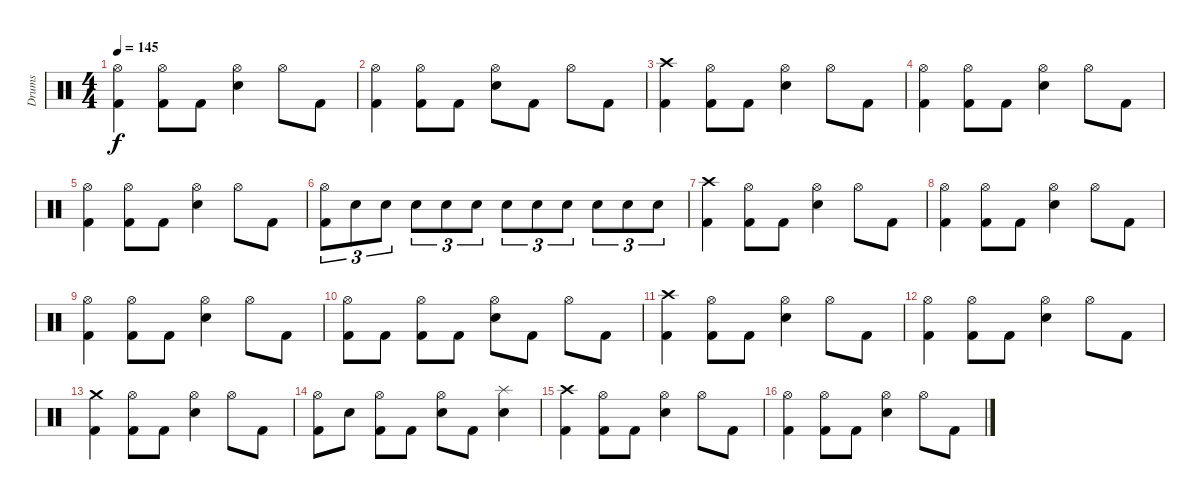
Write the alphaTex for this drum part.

\track ("Drums" "Drums") {instrument percussion}
\staff {score}
\articulation defaults
\ts (4 4)
\tempo 145
\clef neutral
\ks c
("Hi-Hat (open)" "Kick (hit) 2").4{dy f} ("Hi-Hat (open)" "Kick (hit) 2").8 "Kick (hit) 2".8 ("Hi-Hat (open)" "Electric Snare (hit)").4 "Hi-Hat (open)".8 "Kick (hit) 2".8 |
("Hi-Hat (open)" "Kick (hit) 2").4 ("Hi-Hat (open)" "Kick (hit) 2").8 "Kick (hit) 2".8 ("Hi-Hat (open)" "Electric Snare (hit)").8 "Kick (hit) 2".8 "Hi-Hat (open)".8 "Kick (hit) 2".8 |
("Crash high (hit)" "Kick (hit) 2").4 ("Hi-Hat (open)" "Kick (hit) 2").8 "Kick (hit) 2".8 ("Hi-Hat (open)" "Electric Snare (hit)").4 "Hi-Hat (open)".8 "Kick (hit) 2".8 |
("Hi-Hat (open)" "Kick (hit) 2").4 ("Hi-Hat (open)" "Kick (hit) 2").8 "Kick (hit) 2".8 ("Hi-Hat (open)" "Electric Snare (hit)").4 "Hi-Hat (open)".8 "Kick (hit) 2".8 |
("Hi-Hat (open)" "Kick (hit) 2").4 ("Hi-Hat (open)" "Kick (hit) 2").8 "Kick (hit) 2".8 ("Hi-Hat (open)" "Electric Snare (hit)").4 "Hi-Hat (open)".8 "Kick (hit) 2".8 |
("Hi-Hat (open)" "Kick (hit) 2").8{tu (3 2)} "Electric Snare (hit)".8{tu (3 2)} "Electric Snare (hit)".8{tu (3 2)} "Electric Snare (hit)".8{tu (3 2)} "Electric Snare (hit)".8{tu (3 2)} "Electric Snare (hit)".8{tu (3 2)} "Electric Snare (hit)".8{tu (3 2)} "Electric Snare (hit)".8{tu (3 2)} "Electric Snare (hit)".8{tu (3 2)} "Electric Snare (hit)".8{tu (3 2)} "Electric Snare (hit)".8{tu (3 2)} "Electric Snare (hit)".8{tu (3 2)} |
("Crash high (hit)" "Kick (hit) 2").4 ("Hi-Hat (open)" "Kick (hit) 2").8 "Kick (hit) 2".8 ("Hi-Hat (open)" "Electric Snare (hit)").4 "Hi-Hat (open)".8 "Kick (hit) 2".8 |
("Hi-Hat (open)" "Kick (hit) 2").4 ("Hi-Hat (open)" "Kick (hit) 2").8 "Kick (hit) 2".8 ("Hi-Hat (open)" "Electric Snare (hit)").4 "Hi-Hat (open)".8 "Kick (hit) 2".8 |
("Hi-Hat (open)" "Kick (hit) 2").4 ("Hi-Hat (open)" "Kick (hit) 2").8 "Kick (hit) 2".8 ("Hi-Hat (open)" "Electric Snare (hit)").4 "Hi-Hat (open)".8 "Kick (hit) 2".8 |
("Hi-Hat (open)" "Kick (hit) 2").8 "Kick (hit) 2".8 ("Hi-Hat (open)" "Kick (hit) 2").8 "Kick (hit) 2".8 ("Hi-Hat (open)" "Electric Snare (hit)").8 "Kick (hit) 2".8 "Hi-Hat (open)".8 "Kick (hit) 2".8 |
("Crash high (hit)" "Kick (hit) 2").4 ("Hi-Hat (open)" "Kick (hit) 2").8 "Kick (hit) 2".8 ("Hi-Hat (open)" "Electric Snare (hit)").4 "Hi-Hat (open)".8 "Kick (hit) 2".8 |
("Hi-Hat (open)" "Kick (hit) 2").4 ("Hi-Hat (open)" "Kick (hit) 2").8 "Kick (hit) 2".8 ("Hi-Hat (open)" "Electric Snare (hit)").4 "Hi-Hat (open)".8 "Kick (hit) 2".8 |
("Crash medium (hit)" "Kick (hit) 2").4 ("Hi-Hat (open)" "Kick (hit) 2").8 "Kick (hit) 2".8 ("Hi-Hat (open)" "Electric Snare (hit)").4 "Hi-Hat (open)".8 "Kick (hit) 2".8 |
("Hi-Hat (open)" "Kick (hit) 2").8 "Electric Snare (hit)".8 ("Hi-Hat (open)" "Kick (hit) 2").8 "Kick (hit) 2".8 ("Hi-Hat (open)" "Electric Snare (hit)").8 "Kick (hit) 2".8 ("Splash (hit)" "Electric Snare (hit)").4 |
("Crash high (hit)" "Kick (hit) 2").4 ("Hi-Hat (open)" "Kick (hit) 2").8 "Kick (hit) 2".8 ("Hi-Hat (open)" "Electric Snare (hit)").4 "Hi-Hat (open)".8 "Kick (hit) 2".8 |
("Hi-Hat (open)" "Kick (hit) 2").4 ("Hi-Hat (open)" "Kick (hit) 2").8 "Kick (hit) 2".8 ("Hi-Hat (open)" "Electric Snare (hit)").4 "Hi-Hat (open)".8 "Kick (hit) 2".8
